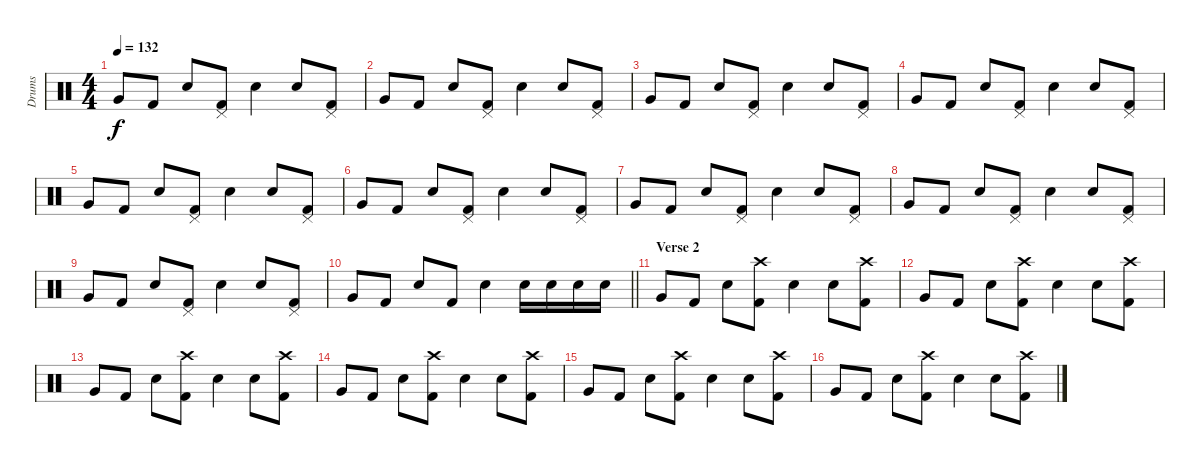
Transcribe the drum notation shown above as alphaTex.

\track ("Drums" "Drums") {instrument percussion}
\staff {score}
\articulation defaults
\ts (4 4)
\tempo 132
\clef neutral
\ks c "Very Low Tom (hit)".8{dy f} "Kick (hit) 2".8 "Snare (hit) 2".8
("Pedal Hi-Hat (hit)" "Kick (hit) 2").8 "Snare (hit) 2".4 "Snare (hit) 2".8 ("Pedal Hi-Hat (hit)" "Kick (hit) 2").8 |
"Very Low Tom (hit)".8 "Kick (hit) 2".8 "Snare (hit) 2".8 ("Pedal Hi-Hat (hit)" "Kick (hit) 2").8 "Snare (hit) 2".4 "Snare (hit) 2".8 ("Pedal Hi-Hat (hit)" "Kick (hit) 2").8 |
"Very Low Tom (hit)".8 "Kick (hit) 2".8 "Snare (hit) 2".8 ("Pedal Hi-Hat (hit)" "Kick (hit) 2").8 "Snare (hit) 2".4 "Snare (hit) 2".8 ("Pedal Hi-Hat (hit)" "Kick (hit) 2").8 |
"Very Low Tom (hit)".8 "Kick (hit) 2".8 "Snare (hit) 2".8 ("Pedal Hi-Hat (hit)" "Kick (hit) 2").8 "Snare (hit) 2".4 "Snare (hit) 2".8 ("Pedal Hi-Hat (hit)" "Kick (hit) 2").8 |
"Very Low Tom (hit)".8 "Kick (hit) 2".8 "Snare (hit) 2".8 ("Pedal Hi-Hat (hit)" "Kick (hit) 2").8 "Snare (hit) 2".4 "Snare (hit) 2".8 ("Pedal Hi-Hat (hit)" "Kick (hit) 2").8 |
"Very Low Tom (hit)".8 "Kick (hit) 2".8 "Snare (hit) 2".8 ("Pedal Hi-Hat (hit)" "Kick (hit) 2").8 "Snare (hit) 2".4 "Snare (hit) 2".8 ("Pedal Hi-Hat (hit)" "Kick (hit) 2").8 |
"Very Low Tom (hit)".8 "Kick (hit) 2".8 "Snare (hit) 2".8 ("Pedal Hi-Hat (hit)" "Kick (hit) 2").8 "Snare (hit) 2".4 "Snare (hit) 2".8 ("Pedal Hi-Hat (hit)" "Kick (hit) 2").8 |
"Very Low Tom (hit)".8 "Kick (hit) 2".8 "Snare (hit) 2".8 ("Pedal Hi-Hat (hit)" "Kick (hit) 2").8 "Snare (hit) 2".4 "Snare (hit) 2".8 ("Pedal Hi-Hat (hit)" "Kick (hit) 2").8 |
"Very Low Tom (hit)".8 "Kick (hit) 2".8 "Snare (hit) 2".8 ("Pedal Hi-Hat (hit)" "Kick (hit) 2").8 "Snare (hit) 2".4 "Snare (hit) 2".8 ("Pedal Hi-Hat (hit)" "Kick (hit) 2").8 |
\barLineRight lightlight "Very Low Tom (hit)".8 "Kick (hit) 2".8 "Snare (hit) 2".8 "Kick (hit) 2".8 "Snare (hit) 2".4 "Electric Snare (hit)".16 "Electric Snare (hit)".16 "Electric Snare (hit)".16 "Electric Snare (hit)".16
|
\section ("" "Verse 2")
"Very Low Tom (hit)".8 "Kick (hit) 2".8 "Snare (hit) 2".8 ("Crash high (hit)" "Kick (hit) 2").8 "Snare (hit) 2".4 "Snare (hit) 2".8 ("Crash high (hit)" "Kick (hit) 2").8 |
"Very Low Tom (hit)".8 "Kick (hit) 2".8 "Snare (hit) 2".8 ("Crash high (hit)" "Kick (hit) 2").8 "Snare (hit) 2".4 "Snare (hit) 2".8 ("Crash high (hit)" "Kick (hit) 2").8 |
"Very Low Tom (hit)".8 "Kick (hit) 2".8 "Snare (hit) 2".8 ("Crash high (hit)" "Kick (hit) 2").8 "Snare (hit) 2".4 "Snare (hit) 2".8 ("Crash high (hit)" "Kick (hit) 2").8 |
"Very Low Tom (hit)".8 "Kick (hit) 2".8 "Snare (hit) 2".8 ("Crash high (hit)" "Kick (hit) 2").8 "Snare (hit) 2".4 "Snare (hit) 2".8 ("Crash high (hit)" "Kick (hit) 2").8 |
"Very Low Tom (hit)".8 "Kick (hit) 2".8 "Snare (hit) 2".8 ("Crash high (hit)" "Kick (hit) 2").8 "Snare (hit) 2".4 "Snare (hit) 2".8 ("Crash high (hit)" "Kick (hit) 2").8 |
"Very Low Tom (hit)".8 "Kick (hit) 2".8 "Snare (hit) 2".8 ("Crash high (hit)" "Kick (hit) 2").8 "Snare (hit) 2".4 "Snare (hit) 2".8 ("Crash high (hit)" "Kick (hit) 2").8
